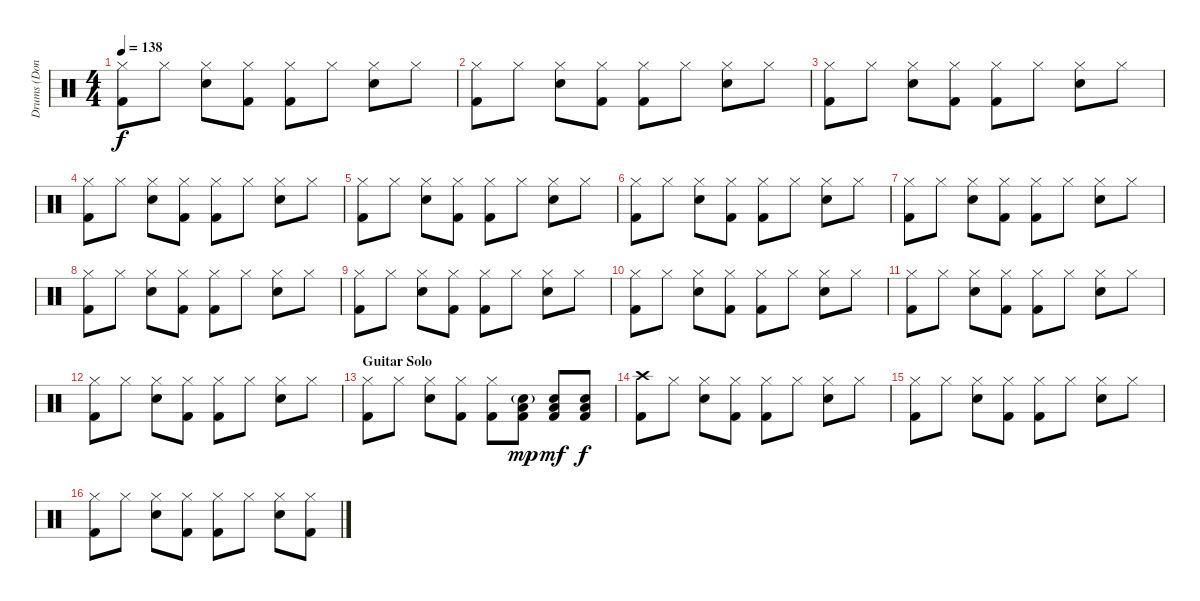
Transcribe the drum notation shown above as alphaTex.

\track ("Drums (Don Henley)" "Drums (Don") {instrument percussion}
\staff {score}
\articulation defaults
\ts (4 4)
\tempo 138
\clef neutral
\ks c
("Hi-Hat (closed)" "Kick (hit) 2").8{dy f} "Hi-Hat (closed)".8 ("Hi-Hat (closed)" "Snare (hit) 2").8 ("Hi-Hat (closed)" "Kick (hit) 2").8 ("Hi-Hat (closed)" "Kick (hit) 2").8 "Hi-Hat (closed)".8 ("Hi-Hat (closed)" "Snare (hit) 2").8 "Hi-Hat (closed)".8 |
("Hi-Hat (closed)" "Kick (hit) 2").8 "Hi-Hat (closed)".8 ("Hi-Hat (closed)" "Snare (hit) 2").8 ("Hi-Hat (closed)" "Kick (hit) 2").8 ("Hi-Hat (closed)" "Kick (hit) 2").8 "Hi-Hat (closed)".8 ("Hi-Hat (closed)" "Snare (hit) 2").8 "Hi-Hat (closed)".8 |
("Hi-Hat (closed)" "Kick (hit) 2").8 "Hi-Hat (closed)".8 ("Hi-Hat (closed)" "Snare (hit) 2").8 ("Hi-Hat (closed)" "Kick (hit) 2").8 ("Hi-Hat (closed)" "Kick (hit) 2").8 "Hi-Hat (closed)".8 ("Hi-Hat (closed)" "Snare (hit) 2").8 "Hi-Hat (closed)".8 |
("Hi-Hat (closed)" "Kick (hit) 2").8 "Hi-Hat (closed)".8 ("Hi-Hat (closed)" "Snare (hit) 2").8 ("Hi-Hat (closed)" "Kick (hit) 2").8 ("Hi-Hat (closed)" "Kick (hit) 2").8 "Hi-Hat (closed)".8 ("Hi-Hat (closed)" "Snare (hit) 2").8 "Hi-Hat (closed)".8 |
("Hi-Hat (closed)" "Kick (hit) 2").8 "Hi-Hat (closed)".8 ("Hi-Hat (closed)" "Snare (hit) 2").8 ("Hi-Hat (closed)" "Kick (hit) 2").8 ("Hi-Hat (closed)" "Kick (hit) 2").8 "Hi-Hat (closed)".8 ("Hi-Hat (closed)" "Snare (hit) 2").8 "Hi-Hat (closed)".8 |
("Hi-Hat (closed)" "Kick (hit) 2").8 "Hi-Hat (closed)".8 ("Hi-Hat (closed)" "Snare (hit) 2").8 ("Hi-Hat (closed)" "Kick (hit) 2").8 ("Hi-Hat (closed)" "Kick (hit) 2").8 "Hi-Hat (closed)".8 ("Hi-Hat (closed)" "Snare (hit) 2").8 "Hi-Hat (closed)".8 |
("Hi-Hat (closed)" "Kick (hit) 2").8 "Hi-Hat (closed)".8 ("Hi-Hat (closed)" "Snare (hit) 2").8 ("Hi-Hat (closed)" "Kick (hit) 2").8 ("Hi-Hat (closed)" "Kick (hit) 2").8 "Hi-Hat (closed)".8 ("Hi-Hat (closed)" "Snare (hit) 2").8 "Hi-Hat (closed)".8 |
("Hi-Hat (closed)" "Kick (hit) 2").8 "Hi-Hat (closed)".8 ("Hi-Hat (closed)" "Snare (hit) 2").8 ("Hi-Hat (closed)" "Kick (hit) 2").8 ("Hi-Hat (closed)" "Kick (hit) 2").8 "Hi-Hat (closed)".8 ("Hi-Hat (closed)" "Snare (hit) 2").8 "Hi-Hat (closed)".8 |
("Hi-Hat (closed)" "Kick (hit) 2").8 "Hi-Hat (closed)".8 ("Hi-Hat (closed)" "Snare (hit) 2").8 ("Hi-Hat (closed)" "Kick (hit) 2").8 ("Hi-Hat (closed)" "Kick (hit) 2").8 "Hi-Hat (closed)".8 ("Hi-Hat (closed)" "Snare (hit) 2").8 "Hi-Hat (closed)".8 |
("Hi-Hat (closed)" "Kick (hit) 2").8 "Hi-Hat (closed)".8 ("Hi-Hat (closed)" "Snare (hit) 2").8 ("Hi-Hat (closed)" "Kick (hit) 2").8 ("Hi-Hat (closed)" "Kick (hit) 2").8 "Hi-Hat (closed)".8 ("Hi-Hat (closed)" "Snare (hit) 2").8 "Hi-Hat (closed)".8 |
("Hi-Hat (closed)" "Kick (hit) 2").8 "Hi-Hat (closed)".8 ("Hi-Hat (closed)" "Snare (hit) 2").8 ("Hi-Hat (closed)" "Kick (hit) 2").8 ("Hi-Hat (closed)" "Kick (hit) 2").8 "Hi-Hat (closed)".8 ("Hi-Hat (closed)" "Snare (hit) 2").8 "Hi-Hat (closed)".8 |
("Hi-Hat (closed)" "Kick (hit) 2").8 "Hi-Hat (closed)".8 ("Hi-Hat (closed)" "Snare (hit) 2").8 ("Hi-Hat (closed)" "Kick (hit) 2").8 ("Hi-Hat (closed)" "Kick (hit) 2").8 "Hi-Hat (closed)".8 ("Hi-Hat (closed)" "Snare (hit) 2").8 "Hi-Hat (closed)".8 |
\section ("" "Guitar Solo")
("Hi-Hat (closed)" "Kick (hit) 2").8 "Hi-Hat (closed)".8 ("Hi-Hat (closed)" "Snare (hit) 2").8 ("Hi-Hat (closed)" "Kick (hit) 2").8 ("Hi-Hat (closed)" "Kick (hit) 2").8 ("Snare (hit) 2"{g} "Low Floor Tom (hit)" "Kick (hit) 2").8{dy mp} ("Snare (hit) 2" "Low Floor Tom (hit)" "Kick (hit) 2").8{dy mf} ("Snare (hit) 2" "Low Floor Tom (hit)" "Kick (hit) 2").8{dy f} |
("Crash high (hit)" "Kick (hit) 2").8 "Hi-Hat (closed)".8 ("Hi-Hat (closed)" "Snare (hit) 2").8 ("Hi-Hat (closed)" "Kick (hit) 2").8 ("Hi-Hat (closed)" "Kick (hit) 2").8 "Hi-Hat (closed)".8 ("Hi-Hat (closed)" "Snare (hit) 2").8 "Hi-Hat (closed)".8 |
("Hi-Hat (closed)" "Kick (hit) 2").8 "Hi-Hat (closed)".8 ("Hi-Hat (closed)" "Snare (hit) 2").8 ("Hi-Hat (closed)" "Kick (hit) 2").8 ("Hi-Hat (closed)" "Kick (hit) 2").8 "Hi-Hat (closed)".8 ("Hi-Hat (closed)" "Snare (hit) 2").8 "Hi-Hat (closed)".8 |
("Hi-Hat (closed)" "Kick (hit) 2").8 "Hi-Hat (closed)".8 ("Hi-Hat (closed)" "Snare (hit) 2").8 ("Hi-Hat (closed)" "Kick (hit) 2").8 ("Hi-Hat (closed)" "Kick (hit) 2").8 "Hi-Hat (closed)".8 ("Hi-Hat (closed)" "Snare (hit) 2").8 ("Hi-Hat (closed)" "Kick (hit) 2").8
